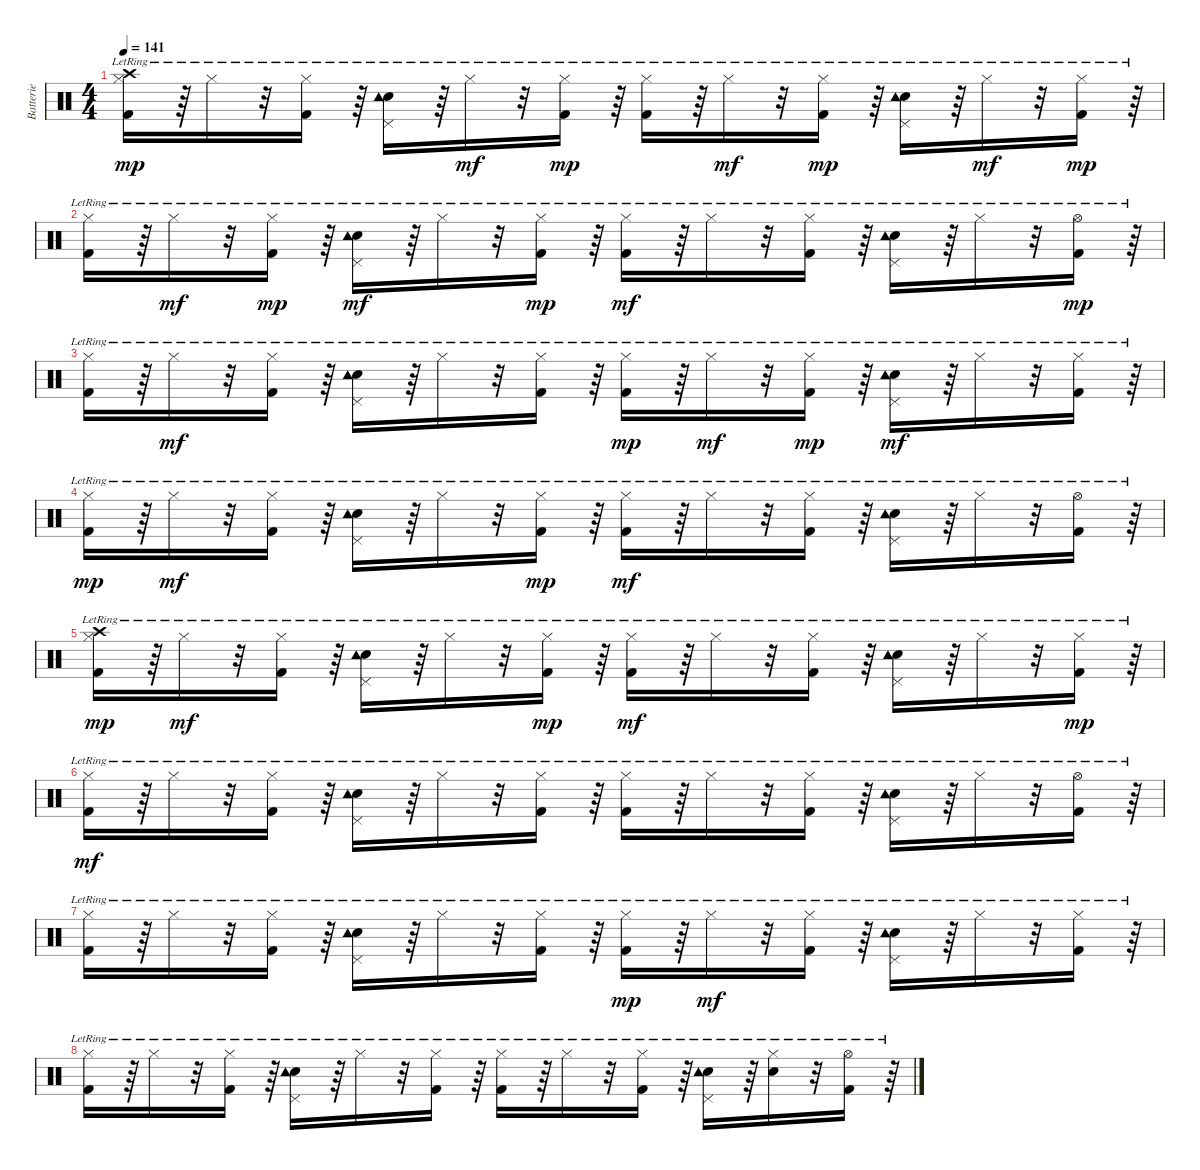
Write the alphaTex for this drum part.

\track ("Batterie" "Batterie") {instrument percussion}
\staff {score}
\articulation defaults
\ts (4 4)
\tempo 141
\clef neutral
\ks c
("Hi-Hat (closed)"{lr} "Crash high (hit)"{lr} "Kick (hit) 2"{lr}).16{dy mp} r.64 "Hi-Hat (closed)"{lr}.16 r.32 ("Hi-Hat (closed)"{lr} "Kick (hit) 2"{lr}).16 r.64 ("Pedal Hi-Hat (hit)"{lr} "Snare (hit) 2"{lr} "Tambourine (hit)"{lr}).16 r.64 "Hi-Hat (closed)"{lr}.16{dy mf} r.32 ("Hi-Hat (closed)"{lr} "Kick (hit) 2"{lr}).16{dy mp} r.64 ("Hi-Hat (closed)"{lr} "Kick (hit) 2"{lr}).16 r.64 "Hi-Hat (closed)"{lr}.16{dy mf} r.32 ("Hi-Hat (closed)"{lr} "Kick (hit) 2"{lr}).16{dy mp} r.64 ("Pedal Hi-Hat (hit)"{lr} "Snare (hit) 2"{lr} "Tambourine (hit)"{lr}).16 r.64 "Hi-Hat (closed)"{lr}.16{dy mf} r.32 ("Hi-Hat (closed)"{lr} "Kick (hit) 2"{lr}).16{dy mp} r.64 |
("Hi-Hat (closed)"{lr} "Kick (hit) 2"{lr}).16 r.64 "Hi-Hat (closed)"{lr}.16{dy mf} r.32 ("Hi-Hat (closed)"{lr} "Kick (hit) 2"{lr}).16{dy mp} r.64 ("Pedal Hi-Hat (hit)"{lr} "Snare (hit) 2"{lr} "Tambourine (hit)"{lr}).16{dy mf} r.64 "Hi-Hat (closed)"{lr}.16 r.32 ("Hi-Hat (closed)"{lr} "Kick (hit) 2"{lr}).16{dy mp} r.64 ("Hi-Hat (closed)"{lr} "Kick (hit) 2"{lr}).16{dy mf} r.64 "Hi-Hat (closed)"{lr}.16 r.32 ("Hi-Hat (closed)"{lr} "Kick (hit) 2"{lr}).16 r.64 ("Pedal Hi-Hat (hit)"{lr} "Snare (hit) 2"{lr} "Tambourine (hit)"{lr}).16 r.64 "Hi-Hat (closed)"{lr}.16 r.32 ("Hi-Hat (open)"{lr} "Kick (hit) 2"{lr}).16{dy mp} r.64 |
("Hi-Hat (closed)"{lr} "Kick (hit) 2"{lr}).16 r.64 "Hi-Hat (closed)"{lr}.16{dy mf} r.32 ("Hi-Hat (closed)"{lr} "Kick (hit) 2"{lr}).16 r.64 ("Pedal Hi-Hat (hit)"{lr} "Snare (hit) 2"{lr} "Tambourine (hit)"{lr}).16 r.64 "Hi-Hat (closed)"{lr}.16 r.32 ("Hi-Hat (closed)"{lr} "Kick (hit) 2"{lr}).16 r.64 ("Hi-Hat (closed)"{lr} "Kick (hit) 2"{lr}).16{dy mp} r.64 "Hi-Hat (closed)"{lr}.16{dy mf} r.32 ("Hi-Hat (closed)"{lr} "Kick (hit) 2"{lr}).16{dy mp} r.64 ("Pedal Hi-Hat (hit)"{lr} "Snare (hit) 2"{lr} "Tambourine (hit)"{lr}).16{dy mf} r.64 "Hi-Hat (closed)"{lr}.16 r.32 ("Hi-Hat (closed)"{lr} "Kick (hit) 2"{lr}).16 r.64 |
("Hi-Hat (closed)"{lr} "Kick (hit) 2"{lr}).16{dy mp} r.64 "Hi-Hat (closed)"{lr}.16{dy mf} r.32 ("Hi-Hat (closed)"{lr} "Kick (hit) 2"{lr}).16 r.64 ("Pedal Hi-Hat (hit)"{lr} "Snare (hit) 2"{lr} "Tambourine (hit)"{lr}).16 r.64 "Hi-Hat (closed)"{lr}.16 r.32 ("Hi-Hat (closed)"{lr} "Kick (hit) 2"{lr}).16{dy mp} r.64 ("Hi-Hat (closed)"{lr} "Kick (hit) 2"{lr}).16{dy mf} r.64 "Hi-Hat (closed)"{lr}.16 r.32 ("Hi-Hat (closed)"{lr} "Kick (hit) 2"{lr}).16 r.64 ("Pedal Hi-Hat (hit)"{lr} "Snare (hit) 2"{lr} "Tambourine (hit)"{lr}).16 r.64 "Hi-Hat (closed)"{lr}.16 r.32 ("Hi-Hat (open)"{lr} "Kick (hit) 2"{lr}).16 r.64 |
("Hi-Hat (closed)"{lr} "Crash high (hit)"{lr} "Kick (hit) 2"{lr}).16{dy mp} r.64 "Hi-Hat (closed)"{lr}.16{dy mf} r.32 ("Hi-Hat (closed)"{lr} "Kick (hit) 2"{lr}).16 r.64 ("Pedal Hi-Hat (hit)"{lr} "Snare (hit) 2"{lr} "Tambourine (hit)"{lr}).16 r.64 "Hi-Hat (closed)"{lr}.16 r.32 ("Hi-Hat (closed)"{lr} "Kick (hit) 2"{lr}).16{dy mp} r.64 ("Hi-Hat (closed)"{lr} "Kick (hit) 2"{lr}).16{dy mf} r.64 "Hi-Hat (closed)"{lr}.16 r.32 ("Hi-Hat (closed)"{lr} "Kick (hit) 2"{lr}).16 r.64 ("Pedal Hi-Hat (hit)"{lr} "Snare (hit) 2"{lr} "Tambourine (hit)"{lr}).16 r.64 "Hi-Hat (closed)"{lr}.16 r.32 ("Hi-Hat (closed)"{lr} "Kick (hit) 2"{lr}).16{dy mp} r.64 |
("Hi-Hat (closed)"{lr} "Kick (hit) 2"{lr}).16{dy mf} r.64 "Hi-Hat (closed)"{lr}.16 r.32 ("Hi-Hat (closed)"{lr} "Kick (hit) 2"{lr}).16 r.64 ("Pedal Hi-Hat (hit)"{lr} "Snare (hit) 2"{lr} "Tambourine (hit)"{lr}).16 r.64 "Hi-Hat (closed)"{lr}.16 r.32 ("Hi-Hat (closed)"{lr} "Kick (hit) 2"{lr}).16 r.64 ("Hi-Hat (closed)"{lr} "Kick (hit) 2"{lr}).16 r.64 "Hi-Hat (closed)"{lr}.16 r.32 ("Hi-Hat (closed)"{lr} "Kick (hit) 2"{lr}).16 r.64 ("Pedal Hi-Hat (hit)"{lr} "Snare (hit) 2"{lr} "Tambourine (hit)"{lr}).16 r.64 "Hi-Hat (closed)"{lr}.16 r.32 ("Hi-Hat (open)"{lr} "Kick (hit) 2"{lr}).16 r.64 |
("Hi-Hat (closed)"{lr} "Kick (hit) 2"{lr}).16 r.64 "Hi-Hat (closed)"{lr}.16 r.32 ("Hi-Hat (closed)"{lr} "Kick (hit) 2"{lr}).16 r.64 ("Pedal Hi-Hat (hit)"{lr} "Snare (hit) 2"{lr} "Tambourine (hit)"{lr}).16 r.64 "Hi-Hat (closed)"{lr}.16 r.32 ("Hi-Hat (closed)"{lr} "Kick (hit) 2"{lr}).16 r.64 ("Hi-Hat (closed)"{lr} "Kick (hit) 2"{lr}).16{dy mp} r.64 "Hi-Hat (closed)"{lr}.16{dy mf} r.32 ("Hi-Hat (closed)"{lr} "Kick (hit) 2"{lr}).16 r.64 ("Pedal Hi-Hat (hit)"{lr} "Snare (hit) 2"{lr} "Tambourine (hit)"{lr}).16 r.64 "Hi-Hat (closed)"{lr}.16 r.32 ("Hi-Hat (closed)"{lr} "Kick (hit) 2"{lr}).16 r.64 |
("Hi-Hat (closed)"{lr} "Kick (hit) 2"{lr}).16 r.64 "Hi-Hat (closed)"{lr}.16 r.32 ("Hi-Hat (closed)"{lr} "Kick (hit) 2"{lr}).16 r.64 ("Pedal Hi-Hat (hit)"{lr} "Snare (hit) 2"{lr} "Tambourine (hit)"{lr}).16 r.64 "Hi-Hat (closed)"{lr}.16 r.32 ("Hi-Hat (closed)"{lr} "Kick (hit) 2"{lr}).16 r.64 ("Hi-Hat (closed)"{lr} "Kick (hit) 2"{lr}).16 r.64 "Hi-Hat (closed)"{lr}.16 r.32 ("Hi-Hat (closed)"{lr} "Kick (hit) 2"{lr}).16 r.64 ("Pedal Hi-Hat (hit)"{lr} "Snare (hit) 2"{lr} "Tambourine (hit)"{lr}).16 r.64 ("Hi-Hat (closed)"{lr} "Snare (hit) 2"{lr}).16 r.32 ("Hi-Hat (open)"{lr} "Kick (hit) 2"{lr}).16 r.64
